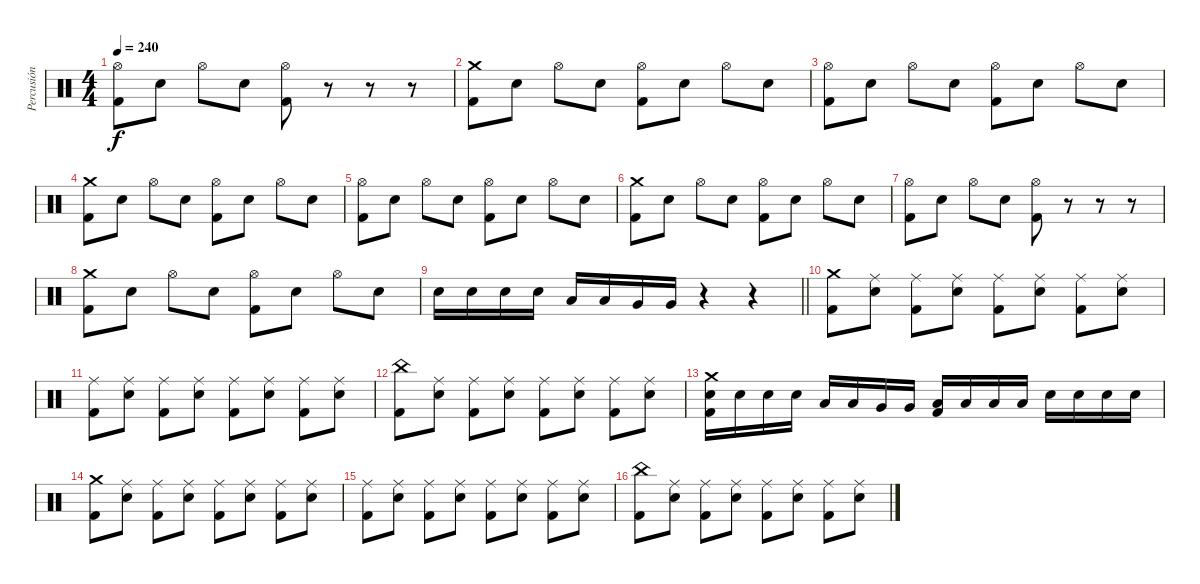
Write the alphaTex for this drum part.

\track ("Percusión" "Percusión") {instrument percussion}
\staff {score}
\articulation defaults
\ts (4 4)
\tempo 240
\clef neutral
\ks c
("Hi-Hat (open)" "Kick (hit) 2").8{dy f} "Electric Snare (hit)".8 "Hi-Hat (open)".8 "Electric Snare (hit)".8 ("Hi-Hat (open)" "Kick (hit) 2").8 r.8 r.8 r.8 |
("Crash medium (hit)" "Kick (hit) 2").8 "Electric Snare (hit)".8 "Hi-Hat (open)".8 "Electric Snare (hit)".8 ("Hi-Hat (open)" "Kick (hit) 2").8 "Electric Snare (hit)".8 "Hi-Hat (open)".8 "Electric Snare (hit)".8 |
("Hi-Hat (open)" "Kick (hit) 2").8 "Electric Snare (hit)".8 "Hi-Hat (open)".8 "Electric Snare (hit)".8 ("Hi-Hat (open)" "Kick (hit) 2").8 "Electric Snare (hit)".8 "Hi-Hat (open)".8 "Electric Snare (hit)".8 |
("Crash medium (hit)" "Kick (hit) 2").8 "Electric Snare (hit)".8 "Hi-Hat (open)".8 "Electric Snare (hit)".8 ("Hi-Hat (open)" "Kick (hit) 2").8 "Electric Snare (hit)".8 "Hi-Hat (open)".8 "Electric Snare (hit)".8 |
("Hi-Hat (open)" "Kick (hit) 2").8 "Electric Snare (hit)".8 "Hi-Hat (open)".8 "Electric Snare (hit)".8 ("Hi-Hat (open)" "Kick (hit) 2").8 "Electric Snare (hit)".8 "Hi-Hat (open)".8 "Electric Snare (hit)".8 |
("Crash medium (hit)" "Kick (hit) 2").8 "Electric Snare (hit)".8 "Hi-Hat (open)".8 "Electric Snare (hit)".8 ("Hi-Hat (open)" "Kick (hit) 2").8 "Electric Snare (hit)".8 "Hi-Hat (open)".8 "Electric Snare (hit)".8 |
("Hi-Hat (open)" "Kick (hit) 2").8 "Electric Snare (hit)".8 "Hi-Hat (open)".8 "Electric Snare (hit)".8 ("Hi-Hat (open)" "Kick (hit) 2").8 r.8 r.8 r.8 |
("Crash medium (hit)" "Kick (hit) 2").8 "Electric Snare (hit)".8 "Hi-Hat (open)".8 "Electric Snare (hit)".8 ("Hi-Hat (open)" "Kick (hit) 2").8 "Electric Snare (hit)".8 "Hi-Hat (open)".8 "Electric Snare (hit)".8 |
\barLineRight lightlight "Electric Snare (hit)".16 "Electric Snare (hit)".16 "Electric Snare (hit)".16 "Electric Snare (hit)".16 "Low Tom (hit)".16 "Low Tom (hit)".16 "Very Low Tom (hit)".16 "Very Low Tom (hit)".16
r.4 r.4 |
("Crash medium (hit)" "Kick (hit) 2").8 ("Ride (middle)" "Electric Snare (hit)").8 ("Ride (middle)" "Kick (hit) 2").8 ("Ride (middle)" "Electric Snare (hit)").8 ("Ride (middle)" "Kick (hit) 2").8 ("Ride (middle)" "Electric Snare (hit)").8 ("Ride (middle)" "Kick (hit) 2").8 ("Ride (middle)" "Electric Snare (hit)").8 |
("Ride (middle)" "Kick (hit) 2").8 ("Ride (middle)" "Electric Snare (hit)").8 ("Ride (middle)" "Kick (hit) 2").8 ("Ride (middle)" "Electric Snare (hit)").8 ("Ride (middle)" "Kick (hit) 2").8 ("Ride (middle)" "Electric Snare (hit)").8 ("Ride (middle)" "Kick (hit) 2").8 ("Ride (middle)" "Electric Snare (hit)").8 |
("China (hit)" "Kick (hit) 2").8 ("Ride (middle)" "Electric Snare (hit)").8 ("Ride (middle)" "Kick (hit) 2").8 ("Ride (middle)" "Electric Snare (hit)").8 ("Ride (middle)" "Kick (hit) 2").8 ("Ride (middle)" "Electric Snare (hit)").8 ("Ride (middle)" "Kick (hit) 2").8 ("Ride (middle)" "Electric Snare (hit)").8 |
("Crash medium (hit)" "Electric Snare (hit)" "Kick (hit) 2").16 "Electric Snare (hit)".16 "Electric Snare (hit)".16 "Electric Snare (hit)".16 "Low Tom (hit)".16 "Low Tom (hit)".16 "Very Low Tom (hit)".16 "Very Low Tom (hit)".16 ("Low Tom (hit)" "Kick (hit) 2").16 "Low Tom (hit)".16 "Low Tom (hit)".16 "Low Tom (hit)".16 "Electric Snare (hit)".16 "Electric Snare (hit)".16 "Electric Snare (hit)".16 "Electric Snare (hit)".16 |
("Crash medium (hit)" "Kick (hit) 2").8 ("Ride (middle)" "Electric Snare (hit)").8 ("Ride (middle)" "Kick (hit) 2").8 ("Ride (middle)" "Electric Snare (hit)").8 ("Ride (middle)" "Kick (hit) 2").8 ("Ride (middle)" "Electric Snare (hit)").8 ("Ride (middle)" "Kick (hit) 2").8 ("Ride (middle)" "Electric Snare (hit)").8 |
("Ride (middle)" "Kick (hit) 2").8 ("Ride (middle)" "Electric Snare (hit)").8 ("Ride (middle)" "Kick (hit) 2").8 ("Ride (middle)" "Electric Snare (hit)").8 ("Ride (middle)" "Kick (hit) 2").8 ("Ride (middle)" "Electric Snare (hit)").8 ("Ride (middle)" "Kick (hit) 2").8 ("Ride (middle)" "Electric Snare (hit)").8 |
("China (hit)" "Kick (hit) 2").8 ("Ride (middle)" "Electric Snare (hit)").8 ("Ride (middle)" "Kick (hit) 2").8 ("Ride (middle)" "Electric Snare (hit)").8 ("Ride (middle)" "Kick (hit) 2").8 ("Ride (middle)" "Electric Snare (hit)").8 ("Ride (middle)" "Kick (hit) 2").8 ("Ride (middle)" "Electric Snare (hit)").8
